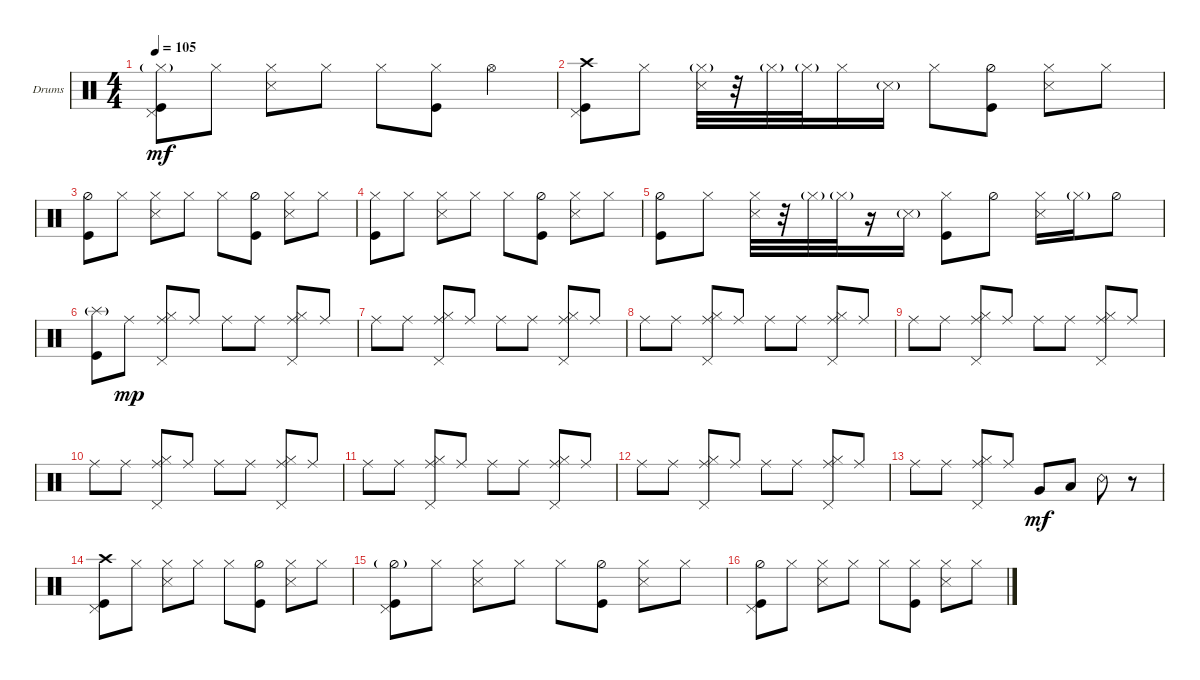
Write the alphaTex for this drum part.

\bracketExtendMode groupsimilarinstruments
\firstSystemTrackNameOrientation horizontal
\otherSystemsTrackNameOrientation horizontal
\track ("Алексей Мещеряков" "Drums") {instrument percussion}
\staff {score}
\articulation defaults
\ts (4 4)
\tempo 105
\clef neutral
\ks c
("Kick (hit)" "Pedal Hi-Hat (hit)" "Hi-Hat (closed)"{g}).8{dy mf} "Hi-Hat (closed)".8 ("Hi-Hat (closed)" "Snare (side stick) 3").8 "Hi-Hat (closed)".8 "Hi-Hat (closed)".8 ("Kick (hit)" "Hi-Hat (closed)").8 "Hi-Hat (open)".4 |
("Kick (hit)" "Crash high (hit)" "Pedal Hi-Hat (hit)").8 "Hi-Hat (closed)".8 ("Hi-Hat (closed)"{g} "Snare (side stick) 3").32 r.32 "Hi-Hat (closed)"{g}.32 "Hi-Hat (closed)"{g}.32 "Hi-Hat (closed)".16 "Snare (side stick) 3"{g}.16 "Hi-Hat (closed)".8 ("Hi-Hat (half)" "Kick (hit)").8 ("Hi-Hat (closed)" "Snare (side stick) 3").8 "Hi-Hat (closed)".8 |
("Hi-Hat (half)" "Kick (hit)").8 "Hi-Hat (closed)".8 ("Hi-Hat (closed)" "Snare (side stick) 3").8 "Hi-Hat (closed)".8 "Hi-Hat (closed)".8 ("Hi-Hat (half)" "Kick (hit)").8 ("Hi-Hat (closed)" "Snare (side stick) 3").8 "Hi-Hat (closed)".8 |
("Hi-Hat (closed)" "Kick (hit)").8 "Hi-Hat (closed)".8 ("Hi-Hat (closed)" "Snare (side stick) 3").8 "Hi-Hat (closed)".8 "Hi-Hat (closed)".8 ("Hi-Hat (half)" "Kick (hit)").8 ("Hi-Hat (closed)" "Snare (side stick) 3").8 "Hi-Hat (closed)".8 |
("Hi-Hat (half)" "Kick (hit)").8 "Hi-Hat (closed)".8 ("Hi-Hat (closed)" "Snare (side stick) 3").32 r.32 "Hi-Hat (closed)"{g}.32 "Hi-Hat (closed)"{g}.32 r.16 "Snare (side stick) 3"{g}.16 ("Kick (hit)" "Hi-Hat (closed)").8 "Hi-Hat (half)".8 ("Snare (side stick) 3" "Hi-Hat (closed)").16 "Hi-Hat (closed)"{g}.16 "Hi-Hat (half)".8 |
("Kick (hit)" "Splash (hit)"{g}).8 "Ride (middle)".8{dy mp} ("Ride (middle)" "Pedal Hi-Hat (hit)" "Hi-Hat (closed)").8 "Ride (middle)".8 "Ride (middle)".8 "Ride (middle)".8 ("Ride (middle)" "Pedal Hi-Hat (hit)" "Hi-Hat (closed)").8 "Ride (middle)".8 |
"Ride (middle)".8 "Ride (middle)".8 ("Ride (middle)" "Pedal Hi-Hat (hit)" "Hi-Hat (closed)").8 "Ride (middle)".8 "Ride (middle)".8 "Ride (middle)".8 ("Ride (middle)" "Pedal Hi-Hat (hit)" "Hi-Hat (closed)").8 "Ride (middle)".8 |
"Ride (middle)".8 "Ride (middle)".8 ("Ride (middle)" "Pedal Hi-Hat (hit)" "Hi-Hat (closed)").8 "Ride (middle)".8 "Ride (middle)".8 "Ride (middle)".8 ("Ride (middle)" "Pedal Hi-Hat (hit)" "Hi-Hat (closed)").8 "Ride (middle)".8 |
"Ride (middle)".8 "Ride (middle)".8 ("Ride (middle)" "Pedal Hi-Hat (hit)" "Hi-Hat (closed)").8 "Ride (middle)".8 "Ride (middle)".8 "Ride (middle)".8 ("Ride (middle)" "Pedal Hi-Hat (hit)" "Hi-Hat (closed)").8 "Ride (middle)".8 |
"Ride (middle)".8 "Ride (middle)".8 ("Ride (middle)" "Pedal Hi-Hat (hit)" "Hi-Hat (closed)").8 "Ride (middle)".8 "Ride (middle)".8 "Ride (middle)".8 ("Ride (middle)" "Pedal Hi-Hat (hit)" "Hi-Hat (closed)").8 "Ride (middle)".8 |
"Ride (middle)".8 "Ride (middle)".8 ("Ride (middle)" "Pedal Hi-Hat (hit)" "Hi-Hat (closed)").8 "Ride (middle)".8 "Ride (middle)".8 "Ride (middle)".8 ("Ride (middle)" "Pedal Hi-Hat (hit)" "Hi-Hat (closed)").8 "Ride (middle)".8 |
"Ride (middle)".8 "Ride (middle)".8 ("Ride (middle)" "Pedal Hi-Hat (hit)" "Hi-Hat (closed)").8 "Ride (middle)".8 "Ride (middle)".8 "Ride (middle)".8 ("Ride (middle)" "Pedal Hi-Hat (hit)" "Hi-Hat (closed)").8 "Ride (middle)".8 |
"Ride (middle)".8 "Ride (middle)".8 ("Ride (middle)" "Pedal Hi-Hat (hit)" "Hi-Hat (closed)").8 "Ride (middle)".8 "Very Low Tom (hit)".8{dy mf} "Low Tom (hit)".8 "Snare (rim shot)".8 r.8 |
("Kick (hit)" "Crash high (hit)" "Pedal Hi-Hat (hit)").8 "Hi-Hat (closed)".8 ("Hi-Hat (closed)" "Snare (side stick) 3").8 "Hi-Hat (closed)".8 "Hi-Hat (closed)".8 ("Hi-Hat (half)" "Kick (hit)").8 ("Hi-Hat (closed)" "Snare (side stick) 3").8 "Hi-Hat (closed)".8 |
("Kick (hit)" "Pedal Hi-Hat (hit)" "Hi-Hat (half)"{g}).8 "Hi-Hat (closed)".8 ("Hi-Hat (closed)" "Snare (side stick) 3").8 "Hi-Hat (closed)".8 "Hi-Hat (closed)".8 ("Kick (hit)" "Hi-Hat (half)").8 ("Hi-Hat (closed)" "Snare (side stick) 3").8 "Hi-Hat (closed)".8 |
("Kick (hit)" "Pedal Hi-Hat (hit)" "Hi-Hat (half)").8 "Hi-Hat (closed)".8 ("Hi-Hat (closed)" "Snare (side stick) 3").8 "Hi-Hat (closed)".8 "Hi-Hat (closed)".8 ("Kick (hit)" "Hi-Hat (closed)").8 ("Hi-Hat (closed)" "Snare (side stick) 3").8 "Hi-Hat (closed)".8
